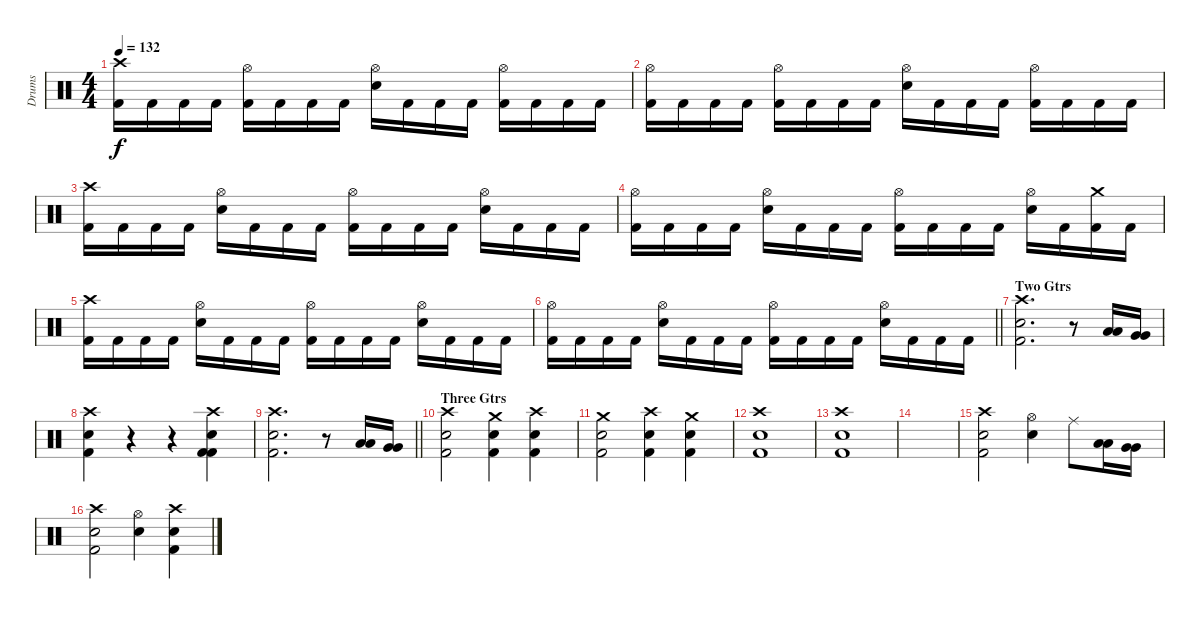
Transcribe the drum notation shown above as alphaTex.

\track ("Drums" "Drums") {instrument percussion}
\staff {score}
\articulation defaults
\ts (4 4)
\tempo 132
\clef neutral
\ks c
("Crash high (hit)" "Kick (hit) 2").16{dy f} "Kick (hit) 2".16 "Kick (hit) 2".16 "Kick (hit) 2".16 ("Hi-Hat (open)" "Kick (hit) 2").16 "Kick (hit) 2".16 "Kick (hit) 2".16 "Kick (hit) 2".16 ("Hi-Hat (open)" "Snare (hit) 2").16 "Kick (hit) 2".16 "Kick (hit) 2".16 "Kick (hit) 2".16 ("Hi-Hat (open)" "Kick (hit) 2").16 "Kick (hit) 2".16 "Kick (hit) 2".16 "Kick (hit) 2".16 |
("Hi-Hat (open)" "Kick (hit) 2").16 "Kick (hit) 2".16 "Kick (hit) 2".16 "Kick (hit) 2".16 ("Hi-Hat (open)" "Kick (hit) 2").16 "Kick (hit) 2".16 "Kick (hit) 2".16 "Kick (hit) 2".16 ("Hi-Hat (open)" "Snare (hit) 2").16 "Kick (hit) 2".16 "Kick (hit) 2".16 "Kick (hit) 2".16 ("Hi-Hat (open)" "Kick (hit) 2").16 "Kick (hit) 2".16 "Kick (hit) 2".16 "Kick (hit) 2".16 |
("Crash high (hit)" "Kick (hit) 2").16 "Kick (hit) 2".16 "Kick (hit) 2".16 "Kick (hit) 2".16 ("Hi-Hat (open)" "Snare (hit) 2").16 "Kick (hit) 2".16 "Kick (hit) 2".16 "Kick (hit) 2".16 ("Hi-Hat (open)" "Kick (hit) 2").16 "Kick (hit) 2".16 "Kick (hit) 2".16 "Kick (hit) 2".16 ("Hi-Hat (open)" "Snare (hit) 2").16 "Kick (hit) 2".16 "Kick (hit) 2".16 "Kick (hit) 2".16 |
("Hi-Hat (open)" "Kick (hit) 2").16 "Kick (hit) 2".16 "Kick (hit) 2".16 "Kick (hit) 2".16 ("Hi-Hat (open)" "Snare (hit) 2").16 "Kick (hit) 2".16 "Kick (hit) 2".16 "Kick (hit) 2".16 ("Hi-Hat (open)" "Kick (hit) 2").16 "Kick (hit) 2".16 "Kick (hit) 2".16 "Kick (hit) 2".16 ("Hi-Hat (open)" "Snare (hit) 2").16 "Kick (hit) 2".16 ("Crash medium (hit)" "Kick (hit) 2").16 "Kick (hit) 2".16 |
("Crash high (hit)" "Kick (hit) 2").16 "Kick (hit) 2".16 "Kick (hit) 2".16 "Kick (hit) 2".16 ("Hi-Hat (open)" "Snare (hit) 2").16 "Kick (hit) 2".16 "Kick (hit) 2".16 "Kick (hit) 2".16 ("Hi-Hat (open)" "Kick (hit) 2").16 "Kick (hit) 2".16 "Kick (hit) 2".16 "Kick (hit) 2".16 ("Hi-Hat (open)" "Snare (hit) 2").16 "Kick (hit) 2".16 "Kick (hit) 2".16 "Kick (hit) 2".16 |
\barLineRight lightlight
("Hi-Hat (open)" "Kick (hit) 2").16 "Kick (hit) 2".16 "Kick (hit) 2".16 "Kick (hit) 2".16 ("Hi-Hat (open)" "Snare (hit) 2").16 "Kick (hit) 2".16 "Kick (hit) 2".16 "Kick (hit) 2".16 ("Hi-Hat (open)" "Kick (hit) 2").16 "Kick (hit) 2".16 "Kick (hit) 2".16 "Kick (hit) 2".16 ("Hi-Hat (open)" "Snare (hit) 2").16 "Kick (hit) 2".16 "Kick (hit) 2".16 "Kick (hit) 2".16 |
\section ("" "Two Gtrs")
("Crash high (hit)" "Snare (hit) 2" "Kick (hit) 2").2{d} r.8 ("Low Tom (hit)" "Low Tom (hit)").16 ("Very Low Tom (hit)" "Very Low Tom (hit)").16 |
("Crash high (hit)" "Snare (hit) 2" "Kick (hit) 2").4 r.4 r.4 ("Crash high (hit)" "Snare (hit) 2" "Kick (hit) 2" "Kick (hit) 2").4 |
\barLineRight lightlight
("Crash high (hit)" "Snare (hit) 2" "Kick (hit) 2").2{d} r.8 ("Low Tom (hit)" "Low Tom (hit)").16 ("Very Low Tom (hit)" "Very Low Tom (hit)").16 |
\section ("" "Three Gtrs")
("Crash high (hit)" "Snare (hit) 2" "Kick (hit) 2").2 ("Crash medium (hit)" "Snare (hit) 2" "Kick (hit) 2").4 ("Crash high (hit)" "Snare (hit) 2" "Kick (hit) 2").4 |
("Crash medium (hit)" "Snare (hit) 2" "Kick (hit) 2").2 ("Crash high (hit)" "Snare (hit) 2" "Kick (hit) 2").4 ("Crash medium (hit)" "Snare (hit) 2" "Kick (hit) 2").4 |
("Crash high (hit)" "Snare (hit) 2" "Kick (hit) 2").1 |
("Crash high (hit)" "Snare (hit) 2" "Kick (hit) 2").1 |
|
("Crash high (hit)" "Snare (hit) 2" "Kick (hit) 2").2 ("Hi-Hat (open)" "Snare (hit) 2").4 "Ride (middle)".8 ("Low Tom (hit)" "Low Tom (hit)").16 ("Very Low Tom (hit)" "Very Low Tom (hit)").16 |
("Crash high (hit)" "Snare (hit) 2" "Kick (hit) 2").2 ("Hi-Hat (open)" "Snare (hit) 2").4 ("Crash high (hit)" "Snare (hit) 2" "Kick (hit) 2").4
